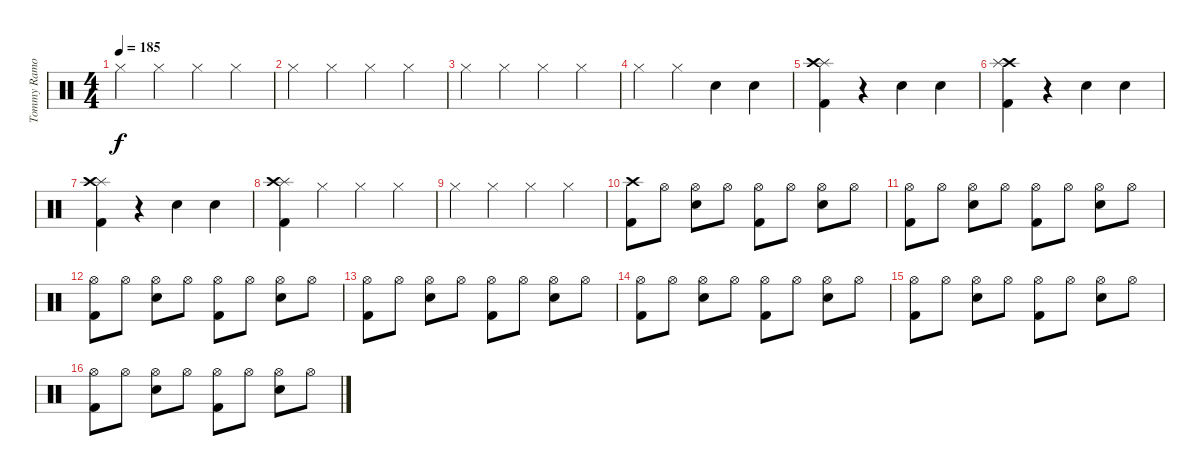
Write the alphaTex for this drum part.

\track ("Tommy Ramone" "Tommy Ramo") {instrument percussion}
\staff {score}
\articulation defaults
\ts (4 4)
\tempo 185
\clef neutral
\ks c "Hi-Hat (closed)".4{dy f} "Hi-Hat (closed)".4 "Hi-Hat (closed)".4 "Hi-Hat (closed)".4
|
"Hi-Hat (closed)".4 "Hi-Hat (closed)".4 "Hi-Hat (closed)".4 "Hi-Hat (closed)".4 |
"Hi-Hat (closed)".4 "Hi-Hat (closed)".4 "Hi-Hat (closed)".4 "Hi-Hat (closed)".4 |
"Hi-Hat (closed)".4 "Hi-Hat (closed)".4 "Snare (hit) 2".4 "Snare (hit) 2".4 |
("Splash (hit)" "Crash high (hit)" "Kick (hit) 2").4 r.4 "Snare (hit) 2".4 "Snare (hit) 2".4 |
("Kick (hit) 2" "Crash high (hit)" "Splash (hit)").4 r.4 "Snare (hit) 2".4 "Snare (hit) 2".4 |
("Kick (hit) 2" "Splash (hit)" "Crash high (hit)").4 r.4 "Snare (hit) 2".4 "Snare (hit) 2".4 |
("Splash (hit)" "Crash high (hit)" "Kick (hit) 2").4 "Hi-Hat (closed)".4 "Hi-Hat (closed)".4 "Hi-Hat (closed)".4 |
"Hi-Hat (closed)".4 "Hi-Hat (closed)".4 "Hi-Hat (closed)".4 "Hi-Hat (closed)".4 |
("Kick (hit) 2" "Crash high (hit)").8 "Hi-Hat (open)".8 ("Snare (hit) 2" "Hi-Hat (open)").8 "Hi-Hat (open)".8 ("Kick (hit) 2" "Hi-Hat (open)").8 "Hi-Hat (open)".8 ("Snare (hit) 2" "Hi-Hat (open)").8 "Hi-Hat (open)".8 |
("Kick (hit) 2" "Hi-Hat (open)").8 "Hi-Hat (open)".8 ("Snare (hit) 2" "Hi-Hat (open)").8 "Hi-Hat (open)".8 ("Kick (hit) 2" "Hi-Hat (open)").8 "Hi-Hat (open)".8 ("Snare (hit) 2" "Hi-Hat (open)").8 "Hi-Hat (open)".8 |
("Kick (hit) 2" "Hi-Hat (open)").8 "Hi-Hat (open)".8 ("Snare (hit) 2" "Hi-Hat (open)").8 "Hi-Hat (open)".8 ("Kick (hit) 2" "Hi-Hat (open)").8 "Hi-Hat (open)".8 ("Snare (hit) 2" "Hi-Hat (open)").8 "Hi-Hat (open)".8 |
("Kick (hit) 2" "Hi-Hat (open)").8 "Hi-Hat (open)".8 ("Snare (hit) 2" "Hi-Hat (open)").8 "Hi-Hat (open)".8 ("Kick (hit) 2" "Hi-Hat (open)").8 "Hi-Hat (open)".8 ("Snare (hit) 2" "Hi-Hat (open)").8 "Hi-Hat (open)".8 |
("Kick (hit) 2" "Hi-Hat (open)").8 "Hi-Hat (open)".8 ("Snare (hit) 2" "Hi-Hat (open)").8 "Hi-Hat (open)".8 ("Kick (hit) 2" "Hi-Hat (open)").8 "Hi-Hat (open)".8 ("Snare (hit) 2" "Hi-Hat (open)").8 "Hi-Hat (open)".8 |
("Kick (hit) 2" "Hi-Hat (open)").8 "Hi-Hat (open)".8 ("Snare (hit) 2" "Hi-Hat (open)").8 "Hi-Hat (open)".8 ("Kick (hit) 2" "Hi-Hat (open)").8 "Hi-Hat (open)".8 ("Snare (hit) 2" "Hi-Hat (open)").8 "Hi-Hat (open)".8 |
("Kick (hit) 2" "Hi-Hat (open)").8 "Hi-Hat (open)".8 ("Snare (hit) 2" "Hi-Hat (open)").8 "Hi-Hat (open)".8 ("Kick (hit) 2" "Hi-Hat (open)").8 "Hi-Hat (open)".8 ("Snare (hit) 2" "Hi-Hat (open)").8 "Hi-Hat (open)".8
